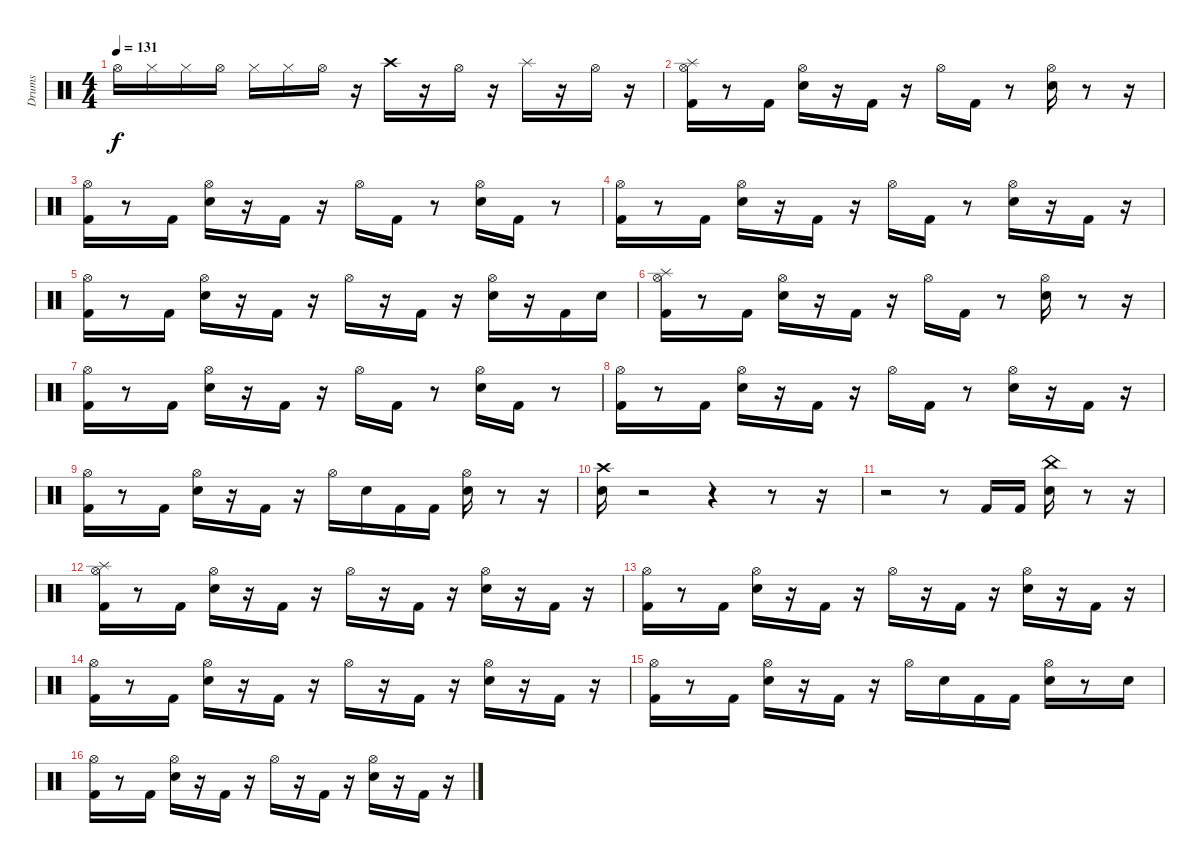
\track ("Drums" "Drums") {instrument percussion}
\staff {score}
\articulation defaults
\ts (4 4)
\tempo 131
\clef neutral
\ks c "Hi-Hat (open)".16{dy f} "Hi-Hat (closed)".16 "Hi-Hat (closed)".16 "Hi-Hat (open)".16 "Hi-Hat (closed)".16 "Hi-Hat (closed)".16 "Hi-Hat (open)".16
r.16 "Crash high (hit)".16 r.16 "Hi-Hat (open)".16 r.16 "Splash (hit)".16 r.16 "Hi-Hat (open)".16 r.16 |
("Splash (hit)" "Hi-Hat (open)" "Kick (hit) 2").16 r.8 "Kick (hit) 2".16 ("Hi-Hat (open)" "Snare (hit) 2").16 r.16 "Kick (hit) 2".16 r.16 "Hi-Hat (open)".16 "Kick (hit) 2".16 r.8 ("Hi-Hat (open)" "Snare (hit) 2").16 r.8 r.16 |
("Hi-Hat (open)" "Kick (hit) 2").16 r.8 "Kick (hit) 2".16 ("Hi-Hat (open)" "Snare (hit) 2").16 r.16 "Kick (hit) 2".16 r.16 "Hi-Hat (open)".16 "Kick (hit) 2".16 r.8 ("Hi-Hat (open)" "Snare (hit) 2").16 "Kick (hit) 2".16 r.8 |
("Hi-Hat (open)" "Kick (hit) 2").16 r.8 "Kick (hit) 2".16 ("Hi-Hat (open)" "Snare (hit) 2").16 r.16 "Kick (hit) 2".16 r.16 "Hi-Hat (open)".16 "Kick (hit) 2".16 r.8 ("Hi-Hat (open)" "Snare (hit) 2").16 r.16 "Kick (hit) 2".16 r.16 |
("Hi-Hat (open)" "Kick (hit) 2").16 r.8 "Kick (hit) 2".16 ("Hi-Hat (open)" "Snare (hit) 2").16 r.16 "Kick (hit) 2".16 r.16 "Hi-Hat (open)".16 r.16 "Kick (hit) 2".16 r.16 ("Hi-Hat (open)" "Snare (hit) 2").16 r.16 "Kick (hit) 2".16 "Snare (hit) 2".16 |
("Hi-Hat (open)" "Splash (hit)" "Kick (hit) 2").16 r.8 "Kick (hit) 2".16 ("Hi-Hat (open)" "Snare (hit) 2").16 r.16 "Kick (hit) 2".16 r.16 "Hi-Hat (open)".16 "Kick (hit) 2".16 r.8 ("Hi-Hat (open)" "Snare (hit) 2").16 r.8 r.16 |
("Hi-Hat (open)" "Kick (hit) 2").16 r.8 "Kick (hit) 2".16 ("Hi-Hat (open)" "Snare (hit) 2").16 r.16 "Kick (hit) 2".16 r.16 "Hi-Hat (open)".16 "Kick (hit) 2".16 r.8 ("Hi-Hat (open)" "Snare (hit) 2").16 "Kick (hit) 2".16 r.8 |
("Hi-Hat (open)" "Kick (hit) 2").16 r.8 "Kick (hit) 2".16 ("Hi-Hat (open)" "Snare (hit) 2").16 r.16 "Kick (hit) 2".16 r.16 "Hi-Hat (open)".16 "Kick (hit) 2".16 r.8 ("Hi-Hat (open)" "Snare (hit) 2").16 r.16 "Kick (hit) 2".16 r.16 |
("Hi-Hat (open)" "Kick (hit) 2").16 r.8 "Kick (hit) 2".16 ("Hi-Hat (open)" "Snare (hit) 2").16 r.16 "Kick (hit) 2".16 r.16 "Hi-Hat (open)".16 "Snare (hit) 2".16 "Kick (hit) 2".16 "Kick (hit) 2".16 ("Hi-Hat (open)" "Snare (hit) 2").16 r.8 r.16 |
("Crash high (hit)" "Snare (hit) 2").16 r.2 r.4 r.8 r.16 |
r.2 r.8 "Kick (hit) 2".16 "Kick (hit) 2".16 ("China (hit)" "Snare (hit) 2").16 r.8 r.16 |
("Hi-Hat (open)" "Splash (hit)" "Kick (hit) 2").16 r.8 "Kick (hit) 2".16 ("Hi-Hat (open)" "Snare (hit) 2").16 r.16 "Kick (hit) 2".16 r.16 "Hi-Hat (open)".16 r.16 "Kick (hit) 2".16 r.16 ("Hi-Hat (open)" "Snare (hit) 2").16 r.16 "Kick (hit) 2".16 r.16 |
("Hi-Hat (open)" "Kick (hit) 2").16 r.8 "Kick (hit) 2".16 ("Hi-Hat (open)" "Snare (hit) 2").16 r.16 "Kick (hit) 2".16 r.16 "Hi-Hat (open)".16 r.16 "Kick (hit) 2".16 r.16 ("Hi-Hat (open)" "Snare (hit) 2").16 r.16 "Kick (hit) 2".16 r.16 |
("Hi-Hat (open)" "Kick (hit) 2").16 r.8 "Kick (hit) 2".16 ("Hi-Hat (open)" "Snare (hit) 2").16 r.16 "Kick (hit) 2".16 r.16 "Hi-Hat (open)".16 r.16 "Kick (hit) 2".16 r.16 ("Hi-Hat (open)" "Snare (hit) 2").16 r.16 "Kick (hit) 2".16 r.16 |
("Hi-Hat (open)" "Kick (hit) 2").16 r.8 "Kick (hit) 2".16 ("Hi-Hat (open)" "Snare (hit) 2").16 r.16 "Kick (hit) 2".16 r.16 "Hi-Hat (open)".16 "Snare (hit) 2".16 "Kick (hit) 2".16 "Kick (hit) 2".16 ("Hi-Hat (open)" "Snare (hit) 2").16 r.8 "Snare (hit) 2".16 |
("Hi-Hat (open)" "Kick (hit) 2").16 r.8 "Kick (hit) 2".16 ("Hi-Hat (open)" "Snare (hit) 2").16 r.16 "Kick (hit) 2".16 r.16 "Hi-Hat (open)".16 r.16 "Kick (hit) 2".16 r.16 ("Hi-Hat (open)" "Snare (hit) 2").16 r.16 "Kick (hit) 2".16 r.16
